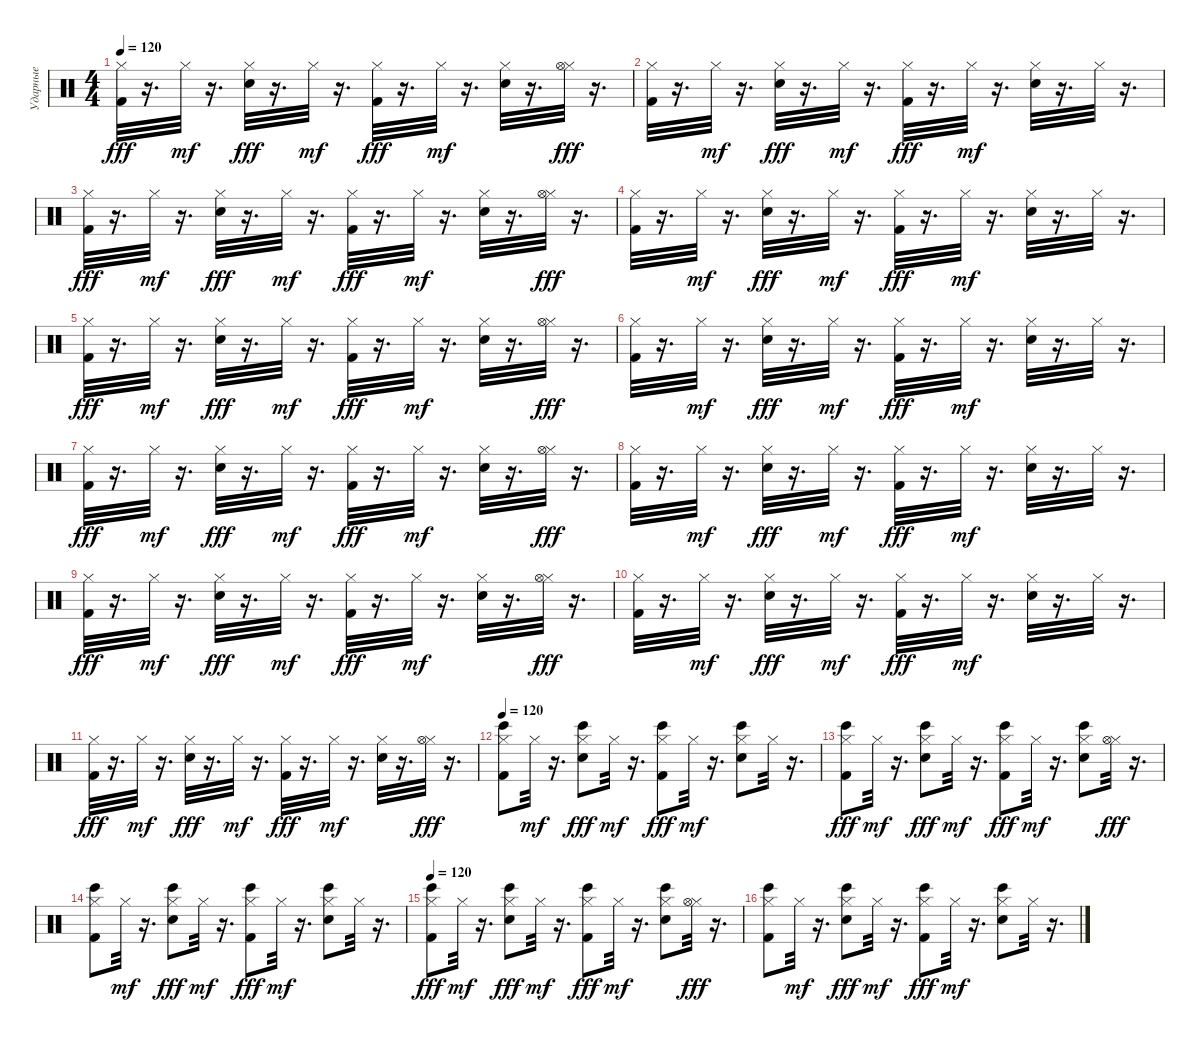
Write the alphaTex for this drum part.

\track ("Ударные" "Ударные") {instrument percussion}
\staff {score}
\articulation defaults
\ts (4 4)
\tempo 120
\clef neutral
\ks c
("Hi-Hat (closed)" "Kick (hit) 2").32{dy fff} r.16{d} "Hi-Hat (closed)".32{dy mf} r.16{d} ("Hi-Hat (closed)" "Snare (hit) 2").32{dy fff} r.16{d} "Hi-Hat (closed)".32{dy mf} r.16{d} ("Hi-Hat (closed)" "Kick (hit) 2").32{dy fff} r.16{d} "Hi-Hat (closed)".32{dy mf} r.16{d} ("Snare (hit) 2" "Hi-Hat (closed)").32 r.16{d} ("Hi-Hat (closed)" "Hi-Hat (open)").32{dy fff} r.16{d} |
("Hi-Hat (closed)" "Kick (hit) 2").32 r.16{d} "Hi-Hat (closed)".32{dy mf} r.16{d} ("Hi-Hat (closed)" "Snare (hit) 2").32{dy fff} r.16{d} "Hi-Hat (closed)".32{dy mf} r.16{d} ("Hi-Hat (closed)" "Kick (hit) 2").32{dy fff} r.16{d} "Hi-Hat (closed)".32{dy mf} r.16{d} ("Snare (hit) 2" "Hi-Hat (closed)").32 r.16{d} "Hi-Hat (closed)".32 r.16{d} |
("Hi-Hat (closed)" "Kick (hit) 2").32{dy fff} r.16{d} "Hi-Hat (closed)".32{dy mf} r.16{d} ("Hi-Hat (closed)" "Snare (hit) 2").32{dy fff} r.16{d} "Hi-Hat (closed)".32{dy mf} r.16{d} ("Hi-Hat (closed)" "Kick (hit) 2").32{dy fff} r.16{d} "Hi-Hat (closed)".32{dy mf} r.16{d} ("Snare (hit) 2" "Hi-Hat (closed)").32 r.16{d} ("Hi-Hat (closed)" "Hi-Hat (open)").32{dy fff} r.16{d} |
("Hi-Hat (closed)" "Kick (hit) 2").32 r.16{d} "Hi-Hat (closed)".32{dy mf} r.16{d} ("Hi-Hat (closed)" "Snare (hit) 2").32{dy fff} r.16{d} "Hi-Hat (closed)".32{dy mf} r.16{d} ("Hi-Hat (closed)" "Kick (hit) 2").32{dy fff} r.16{d} "Hi-Hat (closed)".32{dy mf} r.16{d} ("Snare (hit) 2" "Hi-Hat (closed)").32 r.16{d} "Hi-Hat (closed)".32 r.16{d} |
("Hi-Hat (closed)" "Kick (hit) 2").32{dy fff} r.16{d} "Hi-Hat (closed)".32{dy mf} r.16{d} ("Hi-Hat (closed)" "Snare (hit) 2").32{dy fff} r.16{d} "Hi-Hat (closed)".32{dy mf} r.16{d} ("Hi-Hat (closed)" "Kick (hit) 2").32{dy fff} r.16{d} "Hi-Hat (closed)".32{dy mf} r.16{d} ("Snare (hit) 2" "Hi-Hat (closed)").32 r.16{d} ("Hi-Hat (closed)" "Hi-Hat (open)").32{dy fff} r.16{d} |
("Hi-Hat (closed)" "Kick (hit) 2").32 r.16{d} "Hi-Hat (closed)".32{dy mf} r.16{d} ("Hi-Hat (closed)" "Snare (hit) 2").32{dy fff} r.16{d} "Hi-Hat (closed)".32{dy mf} r.16{d} ("Hi-Hat (closed)" "Kick (hit) 2").32{dy fff} r.16{d} "Hi-Hat (closed)".32{dy mf} r.16{d} ("Snare (hit) 2" "Hi-Hat (closed)").32 r.16{d} "Hi-Hat (closed)".32 r.16{d} |
("Hi-Hat (closed)" "Kick (hit) 2").32{dy fff} r.16{d} "Hi-Hat (closed)".32{dy mf} r.16{d} ("Hi-Hat (closed)" "Snare (hit) 2").32{dy fff} r.16{d} "Hi-Hat (closed)".32{dy mf} r.16{d} ("Hi-Hat (closed)" "Kick (hit) 2").32{dy fff} r.16{d} "Hi-Hat (closed)".32{dy mf} r.16{d} ("Snare (hit) 2" "Hi-Hat (closed)").32 r.16{d} ("Hi-Hat (closed)" "Hi-Hat (open)").32{dy fff} r.16{d} |
("Hi-Hat (closed)" "Kick (hit) 2").32 r.16{d} "Hi-Hat (closed)".32{dy mf} r.16{d} ("Hi-Hat (closed)" "Snare (hit) 2").32{dy fff} r.16{d} "Hi-Hat (closed)".32{dy mf} r.16{d} ("Hi-Hat (closed)" "Kick (hit) 2").32{dy fff} r.16{d} "Hi-Hat (closed)".32{dy mf} r.16{d} ("Snare (hit) 2" "Hi-Hat (closed)").32 r.16{d} "Hi-Hat (closed)".32 r.16{d} |
("Hi-Hat (closed)" "Kick (hit) 2").32{dy fff} r.16{d} "Hi-Hat (closed)".32{dy mf} r.16{d} ("Hi-Hat (closed)" "Snare (hit) 2").32{dy fff} r.16{d} "Hi-Hat (closed)".32{dy mf} r.16{d} ("Hi-Hat (closed)" "Kick (hit) 2").32{dy fff} r.16{d} "Hi-Hat (closed)".32{dy mf} r.16{d} ("Snare (hit) 2" "Hi-Hat (closed)").32 r.16{d} ("Hi-Hat (closed)" "Hi-Hat (open)").32{dy fff} r.16{d} |
("Hi-Hat (closed)" "Kick (hit) 2").32 r.16{d} "Hi-Hat (closed)".32{dy mf} r.16{d} ("Hi-Hat (closed)" "Snare (hit) 2").32{dy fff} r.16{d} "Hi-Hat (closed)".32{dy mf} r.16{d} ("Hi-Hat (closed)" "Kick (hit) 2").32{dy fff} r.16{d} "Hi-Hat (closed)".32{dy mf} r.16{d} ("Snare (hit) 2" "Hi-Hat (closed)").32 r.16{d} "Hi-Hat (closed)".32 r.16{d} |
("Hi-Hat (closed)" "Kick (hit) 2").32{dy fff} r.16{d} "Hi-Hat (closed)".32{dy mf} r.16{d} ("Hi-Hat (closed)" "Snare (hit) 2").32{dy fff} r.16{d} "Hi-Hat (closed)".32{dy mf} r.16{d} ("Hi-Hat (closed)" "Kick (hit) 2").32{dy fff} r.16{d} "Hi-Hat (closed)".32{dy mf} r.16{d} ("Snare (hit) 2" "Hi-Hat (closed)").32 r.16{d} ("Hi-Hat (closed)" "Hi-Hat (open)").32{dy fff} r.16{d} |
\tempo 120
("Bongo High (hit)" "Hi-Hat (closed)" "Kick (hit) 2").8 "Hi-Hat (closed)".32{dy mf} r.16{d} ("Bongo High (hit)" "Hi-Hat (closed)" "Snare (hit) 2").8{dy fff} "Hi-Hat (closed)".32{dy mf} r.16{d} ("Bongo High (hit)" "Hi-Hat (closed)" "Kick (hit) 2").8{dy fff} "Hi-Hat (closed)".32{dy mf} r.16{d} ("Bongo High (hit)" "Snare (hit) 2" "Hi-Hat (closed)").8 "Hi-Hat (closed)".32 r.16{d} |
("Bongo High (hit)" "Hi-Hat (closed)" "Kick (hit) 2").8{dy fff} "Hi-Hat (closed)".32{dy mf} r.16{d} ("Bongo High (hit)" "Hi-Hat (closed)" "Snare (hit) 2").8{dy fff} "Hi-Hat (closed)".32{dy mf} r.16{d} ("Bongo High (hit)" "Hi-Hat (closed)" "Kick (hit) 2").8{dy fff} "Hi-Hat (closed)".32{dy mf} r.16{d} ("Bongo High (hit)" "Snare (hit) 2" "Hi-Hat (closed)").8 ("Hi-Hat (closed)" "Hi-Hat (open)").32{dy fff} r.16{d} |
("Bongo High (hit)" "Hi-Hat (closed)" "Kick (hit) 2").8 "Hi-Hat (closed)".32{dy mf} r.16{d} ("Bongo High (hit)" "Hi-Hat (closed)" "Snare (hit) 2").8{dy fff} "Hi-Hat (closed)".32{dy mf} r.16{d} ("Bongo High (hit)" "Hi-Hat (closed)" "Kick (hit) 2").8{dy fff} "Hi-Hat (closed)".32{dy mf} r.16{d} ("Bongo High (hit)" "Snare (hit) 2" "Hi-Hat (closed)").8 "Hi-Hat (closed)".32 r.16{d} |
\tempo 120
("Bongo High (hit)" "Hi-Hat (closed)" "Kick (hit) 2").8{dy fff} "Hi-Hat (closed)".32{dy mf} r.16{d} ("Bongo High (hit)" "Hi-Hat (closed)" "Snare (hit) 2").8{dy fff} "Hi-Hat (closed)".32{dy mf} r.16{d} ("Bongo High (hit)" "Hi-Hat (closed)" "Kick (hit) 2").8{dy fff} "Hi-Hat (closed)".32{dy mf} r.16{d} ("Bongo High (hit)" "Snare (hit) 2" "Hi-Hat (closed)").8 ("Hi-Hat (closed)" "Hi-Hat (open)").32{dy fff} r.16{d} |
("Bongo High (hit)" "Hi-Hat (closed)" "Kick (hit) 2").8 "Hi-Hat (closed)".32{dy mf} r.16{d} ("Bongo High (hit)" "Hi-Hat (closed)" "Snare (hit) 2").8{dy fff} "Hi-Hat (closed)".32{dy mf} r.16{d} ("Bongo High (hit)" "Hi-Hat (closed)" "Kick (hit) 2").8{dy fff} "Hi-Hat (closed)".32{dy mf} r.16{d} ("Bongo High (hit)" "Snare (hit) 2" "Hi-Hat (closed)").8 "Hi-Hat (closed)".32 r.16{d}
